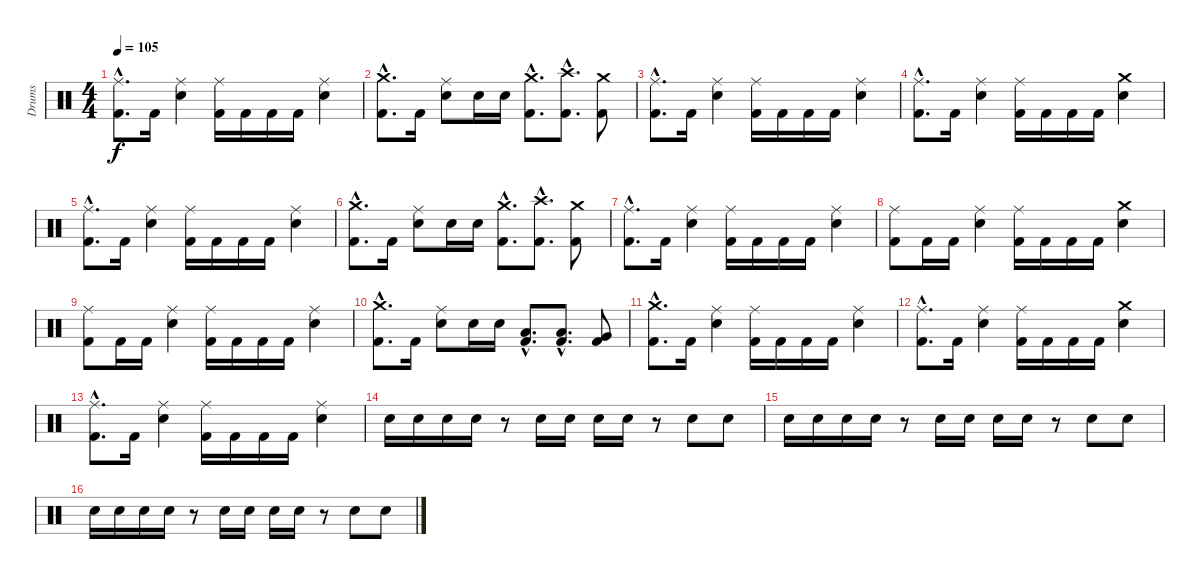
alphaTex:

\track ("Drums" "Drums") {instrument percussion}
\staff {score}
\articulation defaults
\ts (4 4)
\tempo 105
\clef neutral
\ks c
("Kick (hit) 2"{hac} "Ride (middle)"{hac}).8{d dy f} "Kick (hit) 2".16 ("Electric Snare (hit)" "Ride (middle)").4 ("Kick (hit) 2" "Ride (middle)").16 "Kick (hit) 2".16 "Kick (hit) 2".16 "Kick (hit) 2".16 ("Electric Snare (hit)" "Ride (middle)").4 |
("Kick (hit) 2"{hac} "Crash medium (hit)"{hac}).8{d} "Kick (hit) 2".16 ("Electric Snare (hit)" "Ride (middle)").8 "Electric Snare (hit)".16 "Electric Snare (hit)".16 ("Kick (hit) 2"{hac} "Crash medium (hit)"{hac}).8{d} ("Kick (hit) 2"{hac} "Crash high (hit)"{hac}).8{d} ("Kick (hit) 2" "Crash medium (hit)").8 |
("Kick (hit) 2"{hac} "Ride (middle)"{hac}).8{d} "Kick (hit) 2".16 ("Electric Snare (hit)" "Ride (middle)").4 ("Kick (hit) 2" "Ride (middle)").16 "Kick (hit) 2".16 "Kick (hit) 2".16 "Kick (hit) 2".16 ("Electric Snare (hit)" "Ride (middle)").4 |
("Kick (hit) 2"{hac} "Ride (middle)"{hac}).8{d} "Kick (hit) 2".16 ("Electric Snare (hit)" "Ride (middle)").4 ("Kick (hit) 2" "Ride (middle)").16 "Kick (hit) 2".16 "Kick (hit) 2".16 "Kick (hit) 2".16 ("Electric Snare (hit)" "Crash medium (hit)").4 |
("Kick (hit) 2"{hac} "Ride (middle)"{hac}).8{d} "Kick (hit) 2".16 ("Electric Snare (hit)" "Ride (middle)").4 ("Kick (hit) 2" "Ride (middle)").16 "Kick (hit) 2".16 "Kick (hit) 2".16 "Kick (hit) 2".16 ("Electric Snare (hit)" "Ride (middle)").4 |
("Kick (hit) 2"{hac} "Crash medium (hit)"{hac}).8{d} "Kick (hit) 2".16 ("Electric Snare (hit)" "Ride (middle)").8 "Electric Snare (hit)".16 "Electric Snare (hit)".16 ("Kick (hit) 2"{hac} "Crash medium (hit)"{hac}).8{d} ("Kick (hit) 2"{hac} "Crash high (hit)"{hac}).8{d} ("Kick (hit) 2" "Crash medium (hit)").8 |
("Kick (hit) 2"{hac} "Ride (middle)"{hac}).8{d} "Kick (hit) 2".16 ("Electric Snare (hit)" "Ride (middle)").4 ("Kick (hit) 2" "Ride (middle)").16 "Kick (hit) 2".16 "Kick (hit) 2".16 "Kick (hit) 2".16 ("Electric Snare (hit)" "Ride (middle)").4 |
("Kick (hit) 2" "Ride (middle)").8 "Kick (hit) 2".16 "Kick (hit) 2".16 ("Electric Snare (hit)" "Ride (middle)").4 ("Kick (hit) 2" "Ride (middle)").16 "Kick (hit) 2".16 "Kick (hit) 2".16 "Kick (hit) 2".16 ("Electric Snare (hit)" "Crash medium (hit)").4 |
("Kick (hit) 2" "Ride (middle)").8 "Kick (hit) 2".16 "Kick (hit) 2".16 ("Electric Snare (hit)" "Ride (middle)").4 ("Kick (hit) 2" "Ride (middle)").16 "Kick (hit) 2".16 "Kick (hit) 2".16 "Kick (hit) 2".16 ("Electric Snare (hit)" "Ride (middle)").4 |
("Kick (hit) 2"{hac} "Crash medium (hit)"{hac}).8{d} "Kick (hit) 2".16 ("Electric Snare (hit)" "Ride (middle)").8 "Electric Snare (hit)".16 "Electric Snare (hit)".16 ("Kick (hit) 2"{hac} "Low Tom (hit)"{hac}).8{d} ("Kick (hit) 2"{hac} "Low Tom (hit)"{hac}).8{d} ("Kick (hit) 2" "Very Low Tom (hit)").8 |
("Kick (hit) 2"{hac} "Crash medium (hit)"{hac}).8{d} "Kick (hit) 2".16 ("Electric Snare (hit)" "Ride (middle)").4 ("Kick (hit) 2" "Ride (middle)").16 "Kick (hit) 2".16 "Kick (hit) 2".16 "Kick (hit) 2".16 ("Electric Snare (hit)" "Ride (middle)").4 |
("Kick (hit) 2"{hac} "Ride (middle)"{hac}).8{d} "Kick (hit) 2".16 ("Electric Snare (hit)" "Ride (middle)").4 ("Kick (hit) 2" "Ride (middle)").16 "Kick (hit) 2".16 "Kick (hit) 2".16 "Kick (hit) 2".16 ("Electric Snare (hit)" "Crash medium (hit)").4 |
("Kick (hit) 2"{hac} "Ride (middle)"{hac}).8{d} "Kick (hit) 2".16 ("Electric Snare (hit)" "Ride (middle)").4 ("Kick (hit) 2" "Ride (middle)").16 "Kick (hit) 2".16 "Kick (hit) 2".16 "Kick (hit) 2".16 ("Electric Snare (hit)" "Ride (middle)").4 |
"Electric Snare (hit)".16 "Electric Snare (hit)".16 "Electric Snare (hit)".16 "Electric Snare (hit)".16 r.8 "Electric Snare (hit)".16 "Electric Snare (hit)".16 "Electric Snare (hit)".16 "Electric Snare (hit)".16 r.8 "Electric Snare (hit)".8 "Electric Snare (hit)".8 |
"Electric Snare (hit)".16 "Electric Snare (hit)".16 "Electric Snare (hit)".16 "Electric Snare (hit)".16 r.8 "Electric Snare (hit)".16 "Electric Snare (hit)".16 "Electric Snare (hit)".16 "Electric Snare (hit)".16 r.8 "Electric Snare (hit)".8 "Electric Snare (hit)".8 |
"Electric Snare (hit)".16 "Electric Snare (hit)".16 "Electric Snare (hit)".16 "Electric Snare (hit)".16 r.8 "Electric Snare (hit)".16 "Electric Snare (hit)".16 "Electric Snare (hit)".16 "Electric Snare (hit)".16 r.8 "Electric Snare (hit)".8 "Electric Snare (hit)".8
